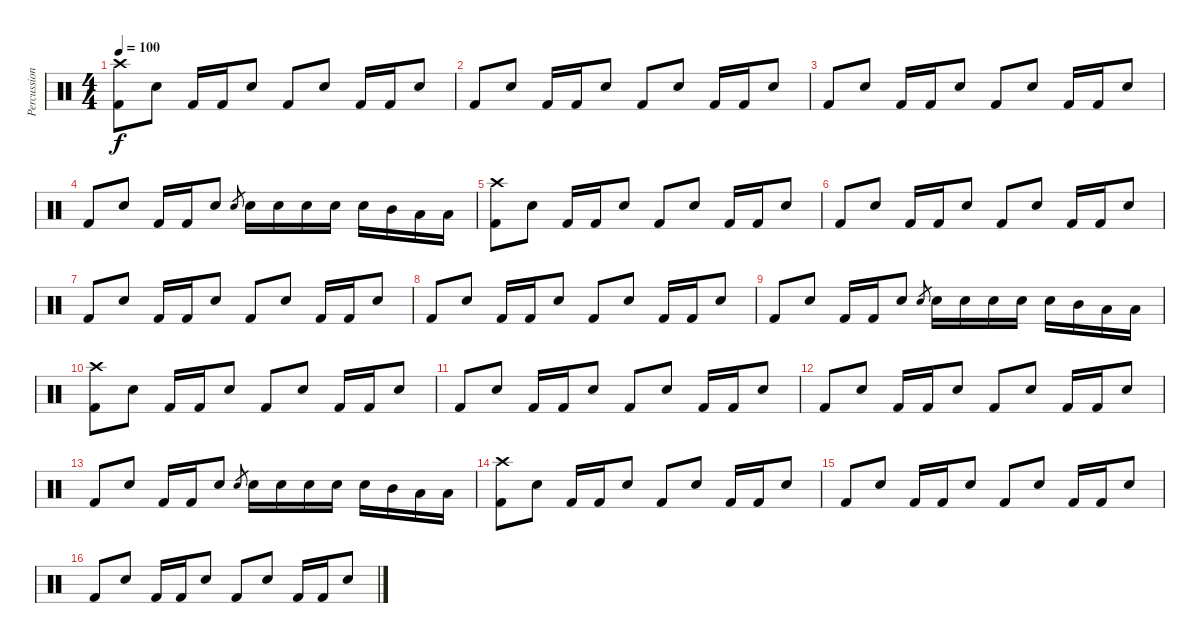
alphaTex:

\track ("Percussions" "Percussion") {instrument percussion}
\staff {score}
\articulation defaults
\ts (4 4)
\tempo 100
\clef neutral
\ks c
("Crash high (hit)" "Kick (hit) 2").8{dy f} "Snare (hit) 2".8 "Kick (hit) 2".16 "Kick (hit) 2".16 "Snare (hit) 2".8 "Kick (hit) 2".8 "Snare (hit) 2".8 "Kick (hit) 2".16 "Kick (hit) 2".16 "Snare (hit) 2".8 |
"Kick (hit) 2".8 "Snare (hit) 2".8 "Kick (hit) 2".16 "Kick (hit) 2".16 "Snare (hit) 2".8 "Kick (hit) 2".8 "Snare (hit) 2".8 "Kick (hit) 2".16 "Kick (hit) 2".16 "Snare (hit) 2".8 |
"Kick (hit) 2".8 "Snare (hit) 2".8 "Kick (hit) 2".16 "Kick (hit) 2".16 "Snare (hit) 2".8 "Kick (hit) 2".8 "Snare (hit) 2".8 "Kick (hit) 2".16 "Kick (hit) 2".16 "Snare (hit) 2".8 |
"Kick (hit) 2".8 "Snare (hit) 2".8 "Kick (hit) 2".16 "Kick (hit) 2".16 "Snare (hit) 2".8 "Snare (hit) 2".8{gr} "Snare (hit) 2".16 "Snare (hit) 2".16 "Snare (hit) 2".16 "Snare (hit) 2".16 "Snare (hit) 2".16 "Mid Tom (hit)".16 "Low Tom (hit)".16 "Low Floor Tom (hit)".16 |
("Crash high (hit)" "Kick (hit) 2").8 "Snare (hit) 2".8 "Kick (hit) 2".16 "Kick (hit) 2".16 "Snare (hit) 2".8 "Kick (hit) 2".8 "Snare (hit) 2".8 "Kick (hit) 2".16 "Kick (hit) 2".16 "Snare (hit) 2".8 |
"Kick (hit) 2".8 "Snare (hit) 2".8 "Kick (hit) 2".16 "Kick (hit) 2".16 "Snare (hit) 2".8 "Kick (hit) 2".8 "Snare (hit) 2".8 "Kick (hit) 2".16 "Kick (hit) 2".16 "Snare (hit) 2".8 |
"Kick (hit) 2".8 "Snare (hit) 2".8 "Kick (hit) 2".16 "Kick (hit) 2".16 "Snare (hit) 2".8 "Kick (hit) 2".8 "Snare (hit) 2".8 "Kick (hit) 2".16 "Kick (hit) 2".16 "Snare (hit) 2".8 |
"Kick (hit) 2".8 "Snare (hit) 2".8 "Kick (hit) 2".16 "Kick (hit) 2".16 "Snare (hit) 2".8 "Kick (hit) 2".8 "Snare (hit) 2".8 "Kick (hit) 2".16 "Kick (hit) 2".16 "Snare (hit) 2".8 |
"Kick (hit) 2".8 "Snare (hit) 2".8 "Kick (hit) 2".16 "Kick (hit) 2".16 "Snare (hit) 2".8 "Snare (hit) 2".8{gr} "Snare (hit) 2".16 "Snare (hit) 2".16 "Snare (hit) 2".16 "Snare (hit) 2".16 "Snare (hit) 2".16 "Mid Tom (hit)".16 "Low Tom (hit)".16 "Low Floor Tom (hit)".16 |
("Crash high (hit)" "Kick (hit) 2").8 "Snare (hit) 2".8 "Kick (hit) 2".16 "Kick (hit) 2".16 "Snare (hit) 2".8 "Kick (hit) 2".8 "Snare (hit) 2".8 "Kick (hit) 2".16 "Kick (hit) 2".16 "Snare (hit) 2".8 |
"Kick (hit) 2".8 "Snare (hit) 2".8 "Kick (hit) 2".16 "Kick (hit) 2".16 "Snare (hit) 2".8 "Kick (hit) 2".8 "Snare (hit) 2".8 "Kick (hit) 2".16 "Kick (hit) 2".16 "Snare (hit) 2".8 |
"Kick (hit) 2".8 "Snare (hit) 2".8 "Kick (hit) 2".16 "Kick (hit) 2".16 "Snare (hit) 2".8 "Kick (hit) 2".8 "Snare (hit) 2".8 "Kick (hit) 2".16 "Kick (hit) 2".16 "Snare (hit) 2".8 |
"Kick (hit) 2".8 "Snare (hit) 2".8 "Kick (hit) 2".16 "Kick (hit) 2".16 "Snare (hit) 2".8 "Snare (hit) 2".8{gr} "Snare (hit) 2".16 "Snare (hit) 2".16 "Snare (hit) 2".16 "Snare (hit) 2".16 "Snare (hit) 2".16 "Mid Tom (hit)".16 "Low Tom (hit)".16 "Low Floor Tom (hit)".16 |
("Crash high (hit)" "Kick (hit) 2").8 "Snare (hit) 2".8 "Kick (hit) 2".16 "Kick (hit) 2".16 "Snare (hit) 2".8 "Kick (hit) 2".8 "Snare (hit) 2".8 "Kick (hit) 2".16 "Kick (hit) 2".16 "Snare (hit) 2".8 |
"Kick (hit) 2".8 "Snare (hit) 2".8 "Kick (hit) 2".16 "Kick (hit) 2".16 "Snare (hit) 2".8 "Kick (hit) 2".8 "Snare (hit) 2".8 "Kick (hit) 2".16 "Kick (hit) 2".16 "Snare (hit) 2".8 |
"Kick (hit) 2".8 "Snare (hit) 2".8 "Kick (hit) 2".16 "Kick (hit) 2".16 "Snare (hit) 2".8 "Kick (hit) 2".8 "Snare (hit) 2".8 "Kick (hit) 2".16 "Kick (hit) 2".16 "Snare (hit) 2".8
